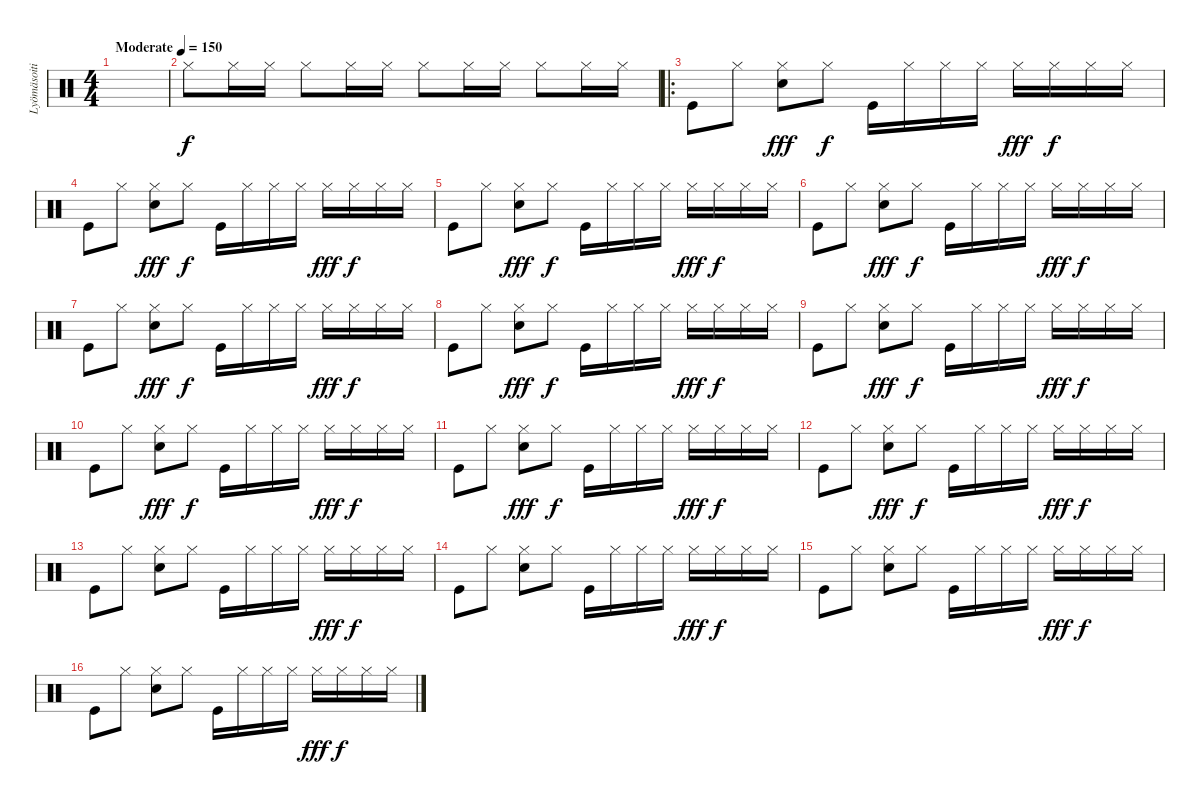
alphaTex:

\track ("Lyömäsoitin" "Lyömäsoiti") {instrument percussion}
\staff {score}
\articulation defaults
\ts (4 4)
\tempo (150 "Moderate")
\clef neutral
\ks c
|
"Hi-Hat (closed)".8 "Hi-Hat (closed)".16 "Hi-Hat (closed)".16 "Hi-Hat (closed)".8 "Hi-Hat (closed)".16 "Hi-Hat (closed)".16 "Hi-Hat (closed)".8 "Hi-Hat (closed)".16 "Hi-Hat (closed)".16 "Hi-Hat (closed)".8 "Hi-Hat (closed)".16 "Hi-Hat (closed)".16 |
\ro "Kick (hit)".8 "Hi-Hat (closed)".8
("Hi-Hat (closed)" "Snare (hit) 2").8{dy fff} "Hi-Hat (closed)".8{dy f} "Kick (hit)".16 "Hi-Hat (closed)".16 "Hi-Hat (closed)".16 "Hi-Hat (closed)".16 "Hi-Hat (closed)".16{dy fff} "Hi-Hat (closed)".16{dy f} "Hi-Hat (closed)".16 "Hi-Hat (closed)".16 |
"Kick (hit)".8 "Hi-Hat (closed)".8 ("Hi-Hat (closed)" "Snare (hit) 2").8{dy fff} "Hi-Hat (closed)".8{dy f} "Kick (hit)".16 "Hi-Hat (closed)".16 "Hi-Hat (closed)".16 "Hi-Hat (closed)".16 "Hi-Hat (closed)".16{dy fff} "Hi-Hat (closed)".16{dy f} "Hi-Hat (closed)".16 "Hi-Hat (closed)".16 |
"Kick (hit)".8 "Hi-Hat (closed)".8 ("Hi-Hat (closed)" "Snare (hit) 2").8{dy fff} "Hi-Hat (closed)".8{dy f} "Kick (hit)".16 "Hi-Hat (closed)".16 "Hi-Hat (closed)".16 "Hi-Hat (closed)".16 "Hi-Hat (closed)".16{dy fff} "Hi-Hat (closed)".16{dy f} "Hi-Hat (closed)".16 "Hi-Hat (closed)".16 |
"Kick (hit)".8 "Hi-Hat (closed)".8 ("Hi-Hat (closed)" "Snare (hit) 2").8{dy fff} "Hi-Hat (closed)".8{dy f} "Kick (hit)".16 "Hi-Hat (closed)".16 "Hi-Hat (closed)".16 "Hi-Hat (closed)".16 "Hi-Hat (closed)".16{dy fff} "Hi-Hat (closed)".16{dy f} "Hi-Hat (closed)".16 "Hi-Hat (closed)".16 |
"Kick (hit)".8 "Hi-Hat (closed)".8 ("Hi-Hat (closed)" "Snare (hit) 2").8{dy fff} "Hi-Hat (closed)".8{dy f} "Kick (hit)".16 "Hi-Hat (closed)".16 "Hi-Hat (closed)".16 "Hi-Hat (closed)".16 "Hi-Hat (closed)".16{dy fff} "Hi-Hat (closed)".16{dy f} "Hi-Hat (closed)".16 "Hi-Hat (closed)".16 |
"Kick (hit)".8 "Hi-Hat (closed)".8 ("Hi-Hat (closed)" "Snare (hit) 2").8{dy fff} "Hi-Hat (closed)".8{dy f} "Kick (hit)".16 "Hi-Hat (closed)".16 "Hi-Hat (closed)".16 "Hi-Hat (closed)".16 "Hi-Hat (closed)".16{dy fff} "Hi-Hat (closed)".16{dy f} "Hi-Hat (closed)".16 "Hi-Hat (closed)".16 |
"Kick (hit)".8 "Hi-Hat (closed)".8 ("Hi-Hat (closed)" "Snare (hit) 2").8{dy fff} "Hi-Hat (closed)".8{dy f} "Kick (hit)".16 "Hi-Hat (closed)".16 "Hi-Hat (closed)".16 "Hi-Hat (closed)".16 "Hi-Hat (closed)".16{dy fff} "Hi-Hat (closed)".16{dy f} "Hi-Hat (closed)".16 "Hi-Hat (closed)".16 |
"Kick (hit)".8 "Hi-Hat (closed)".8 ("Hi-Hat (closed)" "Snare (hit) 2").8{dy fff} "Hi-Hat (closed)".8{dy f} "Kick (hit)".16 "Hi-Hat (closed)".16 "Hi-Hat (closed)".16 "Hi-Hat (closed)".16 "Hi-Hat (closed)".16{dy fff} "Hi-Hat (closed)".16{dy f} "Hi-Hat (closed)".16 "Hi-Hat (closed)".16 |
"Kick (hit)".8 "Hi-Hat (closed)".8 ("Hi-Hat (closed)" "Snare (hit) 2").8{dy fff} "Hi-Hat (closed)".8{dy f} "Kick (hit)".16 "Hi-Hat (closed)".16 "Hi-Hat (closed)".16 "Hi-Hat (closed)".16 "Hi-Hat (closed)".16{dy fff} "Hi-Hat (closed)".16{dy f} "Hi-Hat (closed)".16 "Hi-Hat (closed)".16 |
"Kick (hit)".8 "Hi-Hat (closed)".8 ("Hi-Hat (closed)" "Snare (hit) 2").8{dy fff} "Hi-Hat (closed)".8{dy f} "Kick (hit)".16 "Hi-Hat (closed)".16 "Hi-Hat (closed)".16 "Hi-Hat (closed)".16 "Hi-Hat (closed)".16{dy fff} "Hi-Hat (closed)".16{dy f} "Hi-Hat (closed)".16 "Hi-Hat (closed)".16 |
"Kick (hit)".8 "Hi-Hat (closed)".8 ("Hi-Hat (closed)" "Snare (hit) 2").8 "Hi-Hat (closed)".8 "Kick (hit)".16 "Hi-Hat (closed)".16 "Hi-Hat (closed)".16 "Hi-Hat (closed)".16 "Hi-Hat (closed)".16{dy fff} "Hi-Hat (closed)".16{dy f} "Hi-Hat (closed)".16 "Hi-Hat (closed)".16 |
"Kick (hit)".8 "Hi-Hat (closed)".8 ("Hi-Hat (closed)" "Snare (hit) 2").8 "Hi-Hat (closed)".8 "Kick (hit)".16 "Hi-Hat (closed)".16 "Hi-Hat (closed)".16 "Hi-Hat (closed)".16 "Hi-Hat (closed)".16{dy fff} "Hi-Hat (closed)".16{dy f} "Hi-Hat (closed)".16 "Hi-Hat (closed)".16 |
"Kick (hit)".8 "Hi-Hat (closed)".8 ("Hi-Hat (closed)" "Snare (hit) 2").8 "Hi-Hat (closed)".8 "Kick (hit)".16 "Hi-Hat (closed)".16 "Hi-Hat (closed)".16 "Hi-Hat (closed)".16 "Hi-Hat (closed)".16{dy fff} "Hi-Hat (closed)".16{dy f} "Hi-Hat (closed)".16 "Hi-Hat (closed)".16 |
"Kick (hit)".8 "Hi-Hat (closed)".8 ("Hi-Hat (closed)" "Snare (hit) 2").8 "Hi-Hat (closed)".8 "Kick (hit)".16 "Hi-Hat (closed)".16 "Hi-Hat (closed)".16 "Hi-Hat (closed)".16 "Hi-Hat (closed)".16{dy fff} "Hi-Hat (closed)".16{dy f} "Hi-Hat (closed)".16 "Hi-Hat (closed)".16
